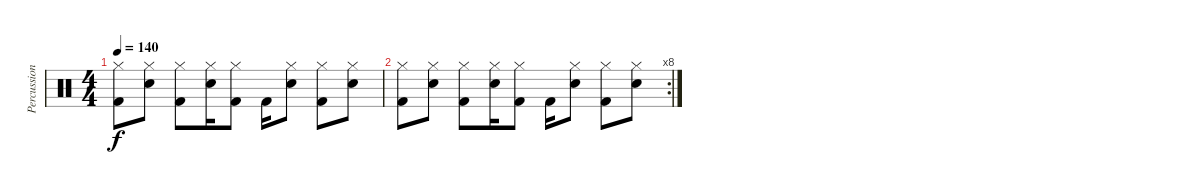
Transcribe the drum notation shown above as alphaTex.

\track ("Percussion" "Percussion") {instrument percussion}
\staff {score}
\articulation defaults
\ts (4 4)
\tempo 140
\clef neutral
\ks c
("Hi-Hat (closed)" "Kick (hit) 2").8{dy f} ("Hi-Hat (closed)" "Electric Snare (hit)").8 ("Hi-Hat (closed)" "Kick (hit) 2").8 ("Hi-Hat (closed)" "Electric Snare (hit)").16 ("Hi-Hat (closed)" "Kick (hit) 2").8 "Kick (hit) 2".16 ("Hi-Hat (closed)" "Electric Snare (hit)").8 ("Hi-Hat (closed)" "Kick (hit) 2").8 ("Hi-Hat (closed)" "Electric Snare (hit)").8 |
\rc 8
("Hi-Hat (closed)" "Kick (hit) 2").8 ("Hi-Hat (closed)" "Electric Snare (hit)").8 ("Hi-Hat (closed)" "Kick (hit) 2").8 ("Hi-Hat (closed)" "Electric Snare (hit)").16 ("Hi-Hat (closed)" "Kick (hit) 2").8 "Kick (hit) 2".16 ("Hi-Hat (closed)" "Electric Snare (hit)").8 ("Hi-Hat (closed)" "Kick (hit) 2").8 ("Hi-Hat (closed)" "Electric Snare (hit)").8
